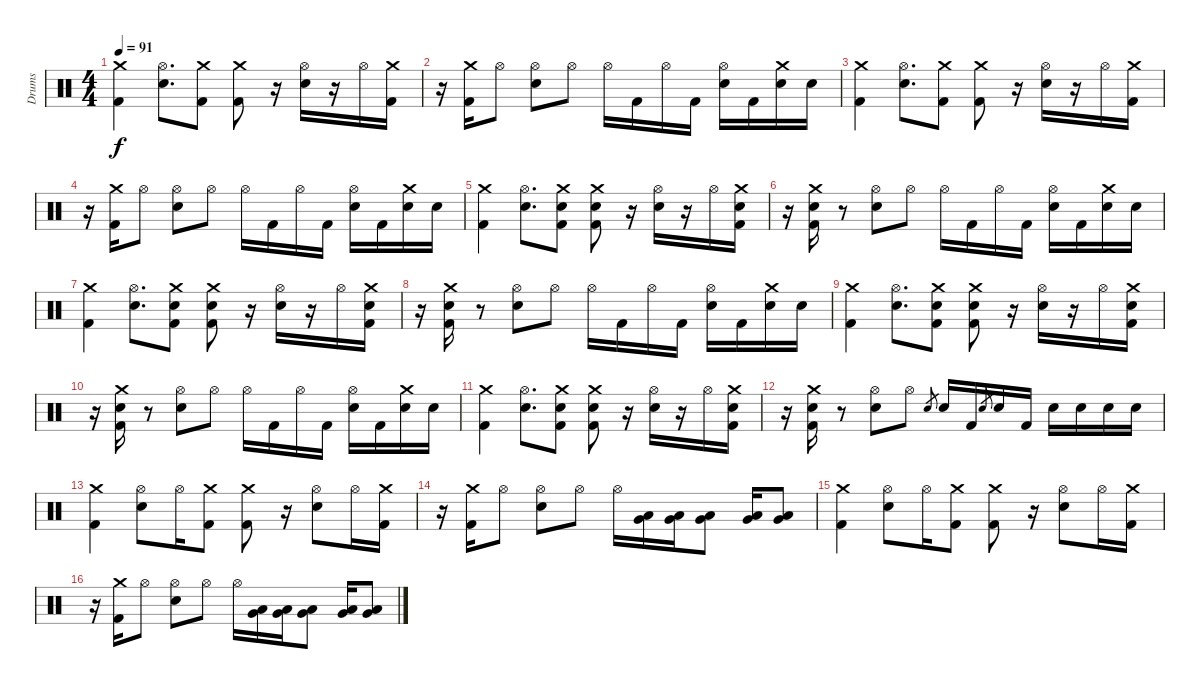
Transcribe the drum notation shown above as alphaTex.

\track ("Drums" "Drums") {instrument percussion}
\staff {score}
\articulation defaults
\ts (4 4)
\tempo 91
\clef neutral
\ks c
("Crash medium (hit)" "Kick (hit) 2").4{dy f} ("Hi-Hat (open)" "Snare (hit) 2").8{d} ("Crash medium (hit)" "Kick (hit) 2").8 ("Crash medium (hit)" "Kick (hit) 2").8 r.16 ("Hi-Hat (open)" "Snare (hit) 2").16 r.16 "Hi-Hat (open)".16 ("Crash medium (hit)" "Kick (hit) 2").16 |
r.16 ("Crash medium (hit)" "Kick (hit) 2").16 "Hi-Hat (open)".8 ("Hi-Hat (open)" "Snare (hit) 2").8 "Hi-Hat (open)".8 "Hi-Hat (open)".16 "Kick (hit) 2".16 "Hi-Hat (open)".16 "Kick (hit) 2".16 ("Hi-Hat (open)" "Snare (hit) 2").16 "Kick (hit) 2".16 ("Crash medium (hit)" "Snare (hit) 2").16 "Snare (hit) 2".16 |
("Crash medium (hit)" "Kick (hit) 2").4 ("Hi-Hat (open)" "Snare (hit) 2").8{d} ("Crash medium (hit)" "Kick (hit) 2").8 ("Crash medium (hit)" "Kick (hit) 2").8 r.16 ("Hi-Hat (open)" "Snare (hit) 2").16 r.16 "Hi-Hat (open)".16 ("Crash medium (hit)" "Kick (hit) 2").16 |
r.16 ("Crash medium (hit)" "Kick (hit) 2").16 "Hi-Hat (open)".8 ("Hi-Hat (open)" "Snare (hit) 2").8 "Hi-Hat (open)".8 "Hi-Hat (open)".16 "Kick (hit) 2".16 "Hi-Hat (open)".16 "Kick (hit) 2".16 ("Hi-Hat (open)" "Snare (hit) 2").16 "Kick (hit) 2".16 ("Crash medium (hit)" "Snare (hit) 2").16 "Snare (hit) 2".16 |
("Crash medium (hit)" "Kick (hit) 2").4 ("Hi-Hat (open)" "Snare (hit) 2").8{d} ("Crash medium (hit)"{pm} "Snare (hit) 2"{pm} "Kick (hit) 2"{pm}).8 ("Crash medium (hit)"{pm} "Snare (hit) 2"{pm} "Kick (hit) 2"{pm}).8 r.16 ("Hi-Hat (open)" "Snare (hit) 2").16 r.16 "Hi-Hat (open)".16 ("Crash medium (hit)" "Snare (hit) 2" "Kick (hit) 2").16 |
r.16 ("Crash medium (hit)" "Snare (hit) 2" "Kick (hit) 2").16 r.8 ("Hi-Hat (open)" "Snare (hit) 2").8 "Hi-Hat (open)".8 "Hi-Hat (open)".16 "Kick (hit) 2".16 "Hi-Hat (open)".16 "Kick (hit) 2".16 ("Hi-Hat (open)" "Snare (hit) 2").16 "Kick (hit) 2".16 ("Crash medium (hit)" "Snare (hit) 2").16 "Snare (hit) 2".16 |
("Crash medium (hit)" "Kick (hit) 2").4 ("Hi-Hat (open)" "Snare (hit) 2").8{d} ("Crash medium (hit)"{pm} "Snare (hit) 2"{pm} "Kick (hit) 2"{pm}).8 ("Crash medium (hit)"{pm} "Snare (hit) 2"{pm} "Kick (hit) 2"{pm}).8 r.16 ("Hi-Hat (open)" "Snare (hit) 2").16 r.16 "Hi-Hat (open)".16 ("Crash medium (hit)" "Snare (hit) 2" "Kick (hit) 2").16 |
r.16 ("Crash medium (hit)" "Snare (hit) 2" "Kick (hit) 2").16 r.8 ("Hi-Hat (open)" "Snare (hit) 2").8 "Hi-Hat (open)".8 "Hi-Hat (open)".16 "Kick (hit) 2".16 "Hi-Hat (open)".16 "Kick (hit) 2".16 ("Hi-Hat (open)" "Snare (hit) 2").16 "Kick (hit) 2".16 ("Crash medium (hit)" "Snare (hit) 2").16 "Snare (hit) 2".16 |
("Crash medium (hit)" "Kick (hit) 2").4 ("Hi-Hat (open)" "Snare (hit) 2").8{d} ("Crash medium (hit)"{pm} "Snare (hit) 2"{pm} "Kick (hit) 2"{pm}).8 ("Crash medium (hit)"{pm} "Snare (hit) 2"{pm} "Kick (hit) 2"{pm}).8 r.16 ("Hi-Hat (open)" "Snare (hit) 2").16 r.16 "Hi-Hat (open)".16 ("Crash medium (hit)" "Snare (hit) 2" "Kick (hit) 2").16 |
r.16 ("Crash medium (hit)" "Snare (hit) 2" "Kick (hit) 2").16 r.8 ("Hi-Hat (open)" "Snare (hit) 2").8 "Hi-Hat (open)".8 "Hi-Hat (open)".16 "Kick (hit) 2".16 "Hi-Hat (open)".16 "Kick (hit) 2".16 ("Hi-Hat (open)" "Snare (hit) 2").16 "Kick (hit) 2".16 ("Crash medium (hit)" "Snare (hit) 2").16 "Snare (hit) 2".16 |
("Crash medium (hit)" "Kick (hit) 2").4 ("Hi-Hat (open)" "Snare (hit) 2").8{d} ("Crash medium (hit)"{pm} "Snare (hit) 2"{pm} "Kick (hit) 2"{pm}).8 ("Crash medium (hit)"{pm} "Snare (hit) 2"{pm} "Kick (hit) 2"{pm}).8 r.16 ("Hi-Hat (open)" "Snare (hit) 2").16 r.16 "Hi-Hat (open)".16 ("Crash medium (hit)" "Snare (hit) 2" "Kick (hit) 2").16 |
r.16 ("Crash medium (hit)" "Snare (hit) 2" "Kick (hit) 2").16 r.8 ("Hi-Hat (open)" "Snare (hit) 2").8 "Hi-Hat (open)".8 "Snare (hit) 2".8{gr} "Snare (hit) 2".16 "Kick (hit) 2".16 "Snare (hit) 2".8{gr} "Snare (hit) 2".16 "Kick (hit) 2".16 "Snare (hit) 2".16 "Snare (hit) 2".16 "Snare (hit) 2".16 "Snare (hit) 2".16 |
("Crash medium (hit)" "Kick (hit) 2").4 ("Hi-Hat (open)" "Snare (hit) 2").8 "Hi-Hat (open)".16 ("Crash medium (hit)" "Kick (hit) 2").8 ("Crash medium (hit)" "Kick (hit) 2").8 r.16 ("Hi-Hat (open)" "Snare (hit) 2").8 "Hi-Hat (open)".16 ("Crash medium (hit)" "Kick (hit) 2").16 |
r.16 ("Crash medium (hit)" "Kick (hit) 2").16 "Hi-Hat (open)".8 ("Hi-Hat (open)" "Snare (hit) 2").8 "Hi-Hat (open)".8 "Hi-Hat (open)".16 ("Low Tom (hit)" "Very Low Tom (hit)").16 ("Low Tom (hit)" "Very Low Tom (hit)").16 ("Low Tom (hit)" "Very Low Tom (hit)").8 ("Low Tom (hit)" "Very Low Tom (hit)").16 ("Low Tom (hit)" "Very Low Tom (hit)").8 |
("Crash medium (hit)" "Kick (hit) 2").4 ("Hi-Hat (open)" "Snare (hit) 2").8 "Hi-Hat (open)".16 ("Crash medium (hit)" "Kick (hit) 2").8 ("Crash medium (hit)" "Kick (hit) 2").8 r.16 ("Hi-Hat (open)" "Snare (hit) 2").8 "Hi-Hat (open)".16 ("Crash medium (hit)" "Kick (hit) 2").16 |
r.16 ("Crash medium (hit)" "Kick (hit) 2").16 "Hi-Hat (open)".8 ("Hi-Hat (open)" "Snare (hit) 2").8 "Hi-Hat (open)".8 "Hi-Hat (open)".16 ("Low Tom (hit)" "Very Low Tom (hit)").16 ("Low Tom (hit)" "Very Low Tom (hit)").16 ("Low Tom (hit)" "Very Low Tom (hit)").8 ("Low Tom (hit)" "Very Low Tom (hit)").16 ("Low Tom (hit)" "Very Low Tom (hit)").8
